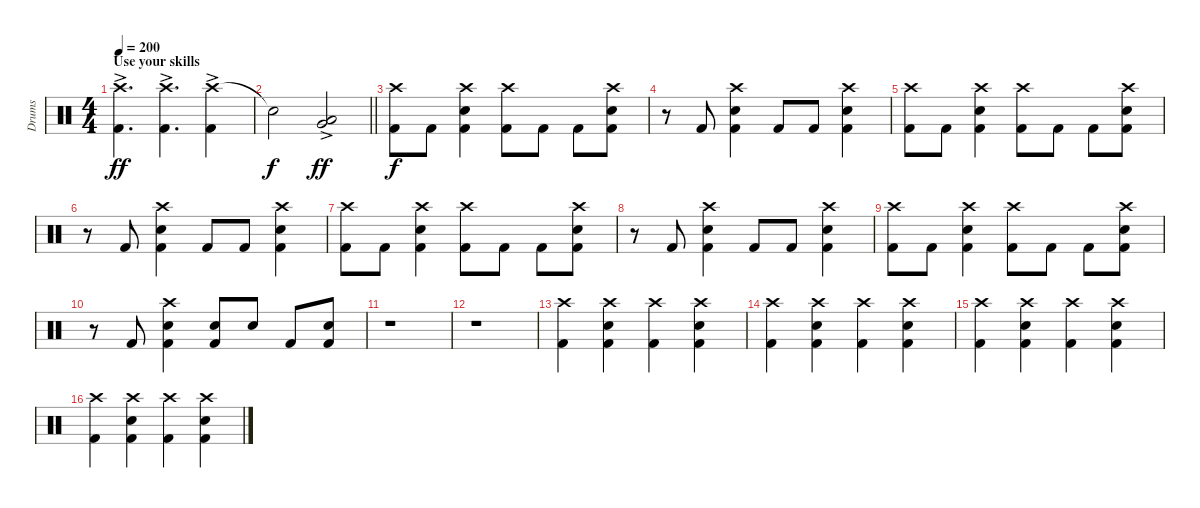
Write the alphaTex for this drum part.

\track ("Drums" "Drums") {instrument percussion}
\staff {score}
\articulation defaults
\ts (4 4)
\section ("" "Use your skills")
\tempo 200
\clef neutral
\ks c
("Crash high (hit)" "Kick (hit) 2"{ac}).4{d dy ff} ("Crash high (hit)" "Kick (hit) 2"{ac}).4{d} ("Crash high (hit)" "Kick (hit) 2"{ac}).4 |
\barLineRight lightlight "Snare (hit)"{t}.2{dy f}
("Low Floor Tom (hit)"{ac} "Very Low Tom (hit)"{ac}).2{dy ff} |
("Crash high (hit)" "Kick (hit) 2").8{dy f} "Kick (hit) 2".8 ("Crash high (hit)" "Snare (hit) 2" "Kick (hit) 2").4 ("Crash high (hit)" "Kick (hit) 2").8 "Kick (hit) 2".8 "Kick (hit) 2".8 ("Crash high (hit)" "Snare (hit) 2" "Kick (hit) 2").8 |
r.8 "Kick (hit) 2".8 ("Crash high (hit)" "Snare (hit) 2" "Kick (hit) 2").4 "Kick (hit) 2".8 "Kick (hit) 2".8 ("Crash high (hit)" "Snare (hit) 2" "Kick (hit) 2").4 |
("Crash high (hit)" "Kick (hit) 2").8 "Kick (hit) 2".8 ("Crash high (hit)" "Snare (hit) 2" "Kick (hit) 2").4 ("Crash high (hit)" "Kick (hit) 2").8 "Kick (hit) 2".8 "Kick (hit) 2".8 ("Crash high (hit)" "Snare (hit) 2" "Kick (hit) 2").8 |
r.8 "Kick (hit) 2".8 ("Crash high (hit)" "Snare (hit) 2" "Kick (hit) 2").4 "Kick (hit) 2".8 "Kick (hit) 2".8 ("Crash high (hit)" "Snare (hit) 2" "Kick (hit) 2").4 |
("Crash high (hit)" "Kick (hit) 2").8 "Kick (hit) 2".8 ("Crash high (hit)" "Snare (hit) 2" "Kick (hit) 2").4 ("Crash high (hit)" "Kick (hit) 2").8 "Kick (hit) 2".8 "Kick (hit) 2".8 ("Crash high (hit)" "Snare (hit) 2" "Kick (hit) 2").8 |
r.8 "Kick (hit) 2".8 ("Crash high (hit)" "Snare (hit) 2" "Kick (hit) 2").4 "Kick (hit) 2".8 "Kick (hit) 2".8 ("Crash high (hit)" "Snare (hit) 2" "Kick (hit) 2").4 |
("Crash high (hit)" "Kick (hit) 2").8 "Kick (hit) 2".8 ("Crash high (hit)" "Snare (hit) 2" "Kick (hit) 2").4 ("Crash high (hit)" "Kick (hit) 2").8 "Kick (hit) 2".8 "Kick (hit) 2".8 ("Crash high (hit)" "Snare (hit) 2" "Kick (hit) 2").8 |
r.8 "Kick (hit) 2".8 ("Crash high (hit)" "Snare (hit) 2" "Kick (hit) 2").4 ("Snare (hit) 2" "Kick (hit) 2").8 "Snare (hit) 2".8 "Kick (hit) 2".8 ("Snare (hit) 2" "Kick (hit) 2").8 |
r.1 |
r.1 |
("Crash high (hit)" "Kick (hit) 2").4 ("Crash high (hit)" "Snare (hit) 2" "Kick (hit) 2").4 ("Crash high (hit)" "Kick (hit) 2").4 ("Crash high (hit)" "Snare (hit) 2" "Kick (hit) 2").4 |
("Crash high (hit)" "Kick (hit) 2").4 ("Crash high (hit)" "Snare (hit) 2" "Kick (hit) 2").4 ("Crash high (hit)" "Kick (hit) 2").4 ("Crash high (hit)" "Snare (hit) 2" "Kick (hit) 2").4 |
("Crash high (hit)" "Kick (hit) 2").4 ("Crash high (hit)" "Snare (hit) 2" "Kick (hit) 2").4 ("Crash high (hit)" "Kick (hit) 2").4 ("Crash high (hit)" "Snare (hit) 2" "Kick (hit) 2").4 |
("Crash high (hit)" "Kick (hit) 2").4 ("Crash high (hit)" "Snare (hit) 2" "Kick (hit) 2").4 ("Crash high (hit)" "Kick (hit) 2").4 ("Crash high (hit)" "Snare (hit) 2" "Kick (hit) 2").4
